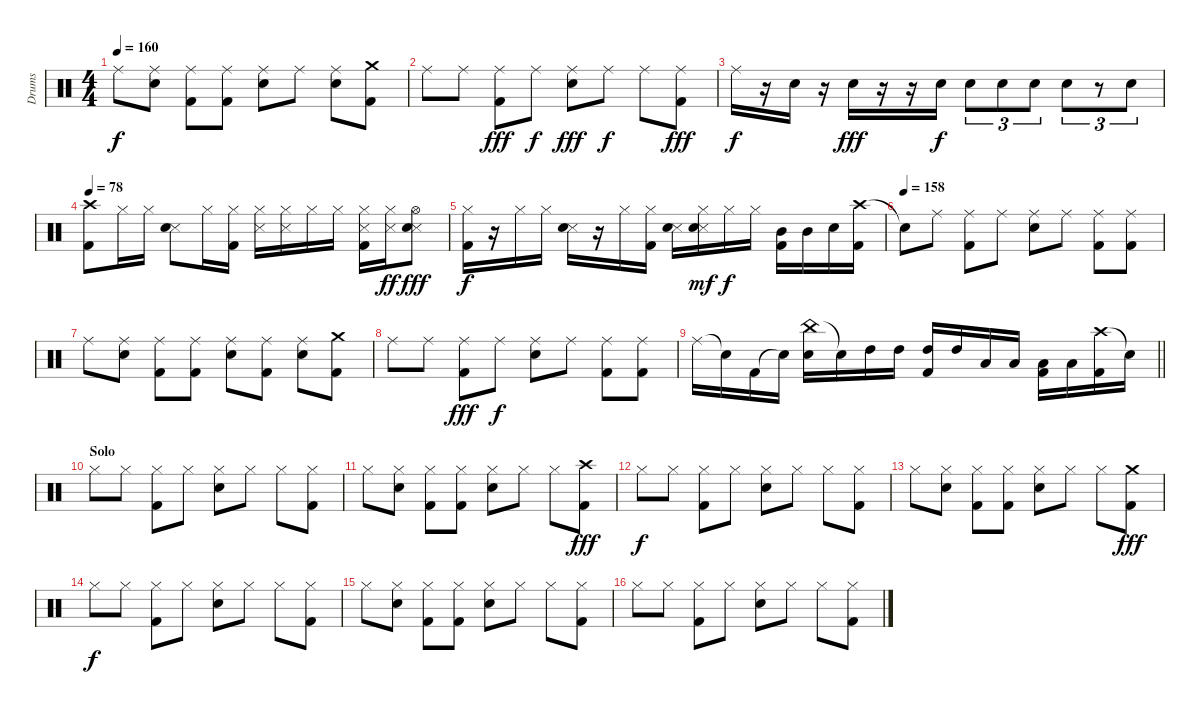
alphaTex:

\track ("Drums" "Drums") {instrument percussion}
\staff {score}
\articulation defaults
\ts (4 4)
\tempo 160
\clef neutral
\ks c "Ride (middle)".8{dy f}
("Ride (middle)" "Snare (hit) 2").8 ("Ride (middle)" "Kick (hit) 2").8 ("Ride (middle)" "Kick (hit) 2").8 ("Ride (middle)" "Snare (hit) 2").8 "Ride (middle)".8 ("Ride (middle)" "Snare (hit) 2").8 ("Crash medium (hit)" "Kick (hit) 2").8 |
"Ride (middle)".8 "Ride (middle)".8 ("Ride (middle)" "Kick (hit) 2").8{dy fff} "Ride (middle)".8{dy f} ("Ride (middle)" "Snare (hit) 2").8{dy fff} "Ride (middle)".8{dy f} "Ride (middle)".8 ("Ride (middle)" "Kick (hit) 2").8{dy fff} |
"Ride (middle)".16{dy f} r.16 "Snare (hit) 2".16 r.16 "Snare (hit) 2".16{dy fff} r.16 r.16 "Snare (hit) 2".16{dy f} "Snare (hit) 2".8{tu (3 2)} "Snare (hit) 2".8{tu (3 2)} "Snare (hit) 2".8{tu (3 2)} "Snare (hit) 2".8{tu (3 2)} r.8{tu (3 2)} "Snare (hit) 2".8{tu (3 2)} |
\tempo 78
("Crash high (hit)" "Kick (hit) 2").8 "Hi-Hat (closed)".16 "Hi-Hat (closed)".16 ("Snare (side stick) 3" "Electric Snare (hit)").8 "Hi-Hat (closed)".16 ("Hi-Hat (closed)" "Kick (hit) 2").16 ("Hi-Hat (closed)" "Snare (side stick) 3").16 ("Hi-Hat (closed)" "Snare (side stick) 3").16 "Hi-Hat (closed)".16 "Hi-Hat (closed)".16 ("Hi-Hat (closed)" "Snare (side stick) 3" "Kick (hit) 2").16 ("Hi-Hat (closed)" "Snare (side stick) 3").16{dy ff} ("Hi-Hat (open)" "Snare (side stick) 3" "Electric Snare (hit)").8{dy fff} |
("Hi-Hat (closed)" "Kick (hit) 2").16{dy f} r.16 "Hi-Hat (closed)".16 "Hi-Hat (closed)".16 ("Snare (side stick) 3" "Electric Snare (hit)").16 r.16 "Hi-Hat (closed)".16 ("Hi-Hat (closed)" "Kick (hit) 2").16 ("Snare (side stick) 3" "Electric Snare (hit)").16 ("Hi-Hat (closed)" "Snare (side stick) 3" "Electric Snare (hit)").16{dy mf} "Hi-Hat (closed)".16{dy f} "Hi-Hat (closed)".16 ("Mid Tom (hit)" "Kick (hit) 2").16 "Mid Tom (hit)".16 "Snare (hit) 2".16 ("Crash high (hit)" "Kick (hit) 2").16 |
\tempo (158)
"Snare (hit)"{t}.8 "Ride (middle)".8 ("Ride (middle)" "Kick (hit) 2").8 "Ride (middle)".8 ("Ride (middle)" "Snare (hit) 2").8 "Ride (middle)".8 ("Ride (middle)" "Kick (hit) 2").8 ("Ride (middle)" "Kick (hit) 2").8 |
"Ride (middle)".8 ("Ride (middle)" "Snare (hit) 2").8 ("Ride (middle)" "Kick (hit) 2").8 ("Ride (middle)" "Kick (hit) 2").8 ("Ride (middle)" "Snare (hit) 2").8 ("Ride (middle)" "Kick (hit) 2").8 ("Ride (middle)" "Snare (hit) 2").8 ("Crash medium (hit)" "Kick (hit) 2").8 |
"Ride (middle)".8 "Ride (middle)".8 ("Ride (middle)" "Kick (hit) 2").8{dy fff} "Ride (middle)".8{dy f} ("Ride (middle)" "Snare (hit) 2").8 "Ride (middle)".8 ("Ride (middle)" "Kick (hit) 2").8 ("Ride (middle)" "Kick (hit) 2").8 |
\barLineRight lightlight "Ride (middle)".16 "Snare (hit)"{t}.16 "Kick (hit) 2".16 "Snare (hit)"{t}.16
("China (hit)" "Snare (hit) 2").16 "Snare (hit)"{t}.16 "High Tom (hit)".16 "High Tom (hit)".16 ("High Tom (hit)" "Kick (hit) 2").16 "High Tom (hit)".16 "Low Tom (hit)".16 "Low Tom (hit)".16 ("Low Tom (hit)" "Kick (hit) 2").16 "Low Tom (hit)".16 ("Crash high (hit)" "Kick (hit) 2").16 "Snare (hit)"{t}.16 |
\section ("" "Solo")
"Hi-Hat (closed)".8 "Hi-Hat (closed)".8 ("Hi-Hat (closed)" "Kick (hit) 2").8 "Hi-Hat (closed)".8 ("Hi-Hat (closed)" "Snare (hit) 2").8 "Hi-Hat (closed)".8 "Hi-Hat (closed)".8 ("Hi-Hat (closed)" "Kick (hit) 2").8 |
"Hi-Hat (closed)".8 ("Hi-Hat (closed)" "Snare (hit) 2").8 ("Hi-Hat (closed)" "Kick (hit) 2").8 ("Hi-Hat (closed)" "Kick (hit) 2").8 ("Hi-Hat (closed)" "Snare (hit) 2").8 "Hi-Hat (closed)".8 "Hi-Hat (closed)".8 ("Crash high (hit)" "Kick (hit) 2").8{dy fff} |
"Hi-Hat (closed)".8{dy f} "Hi-Hat (closed)".8 ("Hi-Hat (closed)" "Kick (hit) 2").8 "Hi-Hat (closed)".8 ("Hi-Hat (closed)" "Snare (hit) 2").8 "Hi-Hat (closed)".8 "Hi-Hat (closed)".8 ("Hi-Hat (closed)" "Kick (hit) 2").8 |
"Hi-Hat (closed)".8 ("Hi-Hat (closed)" "Snare (hit) 2").8 ("Hi-Hat (closed)" "Kick (hit) 2").8 ("Hi-Hat (closed)" "Kick (hit) 2").8 ("Hi-Hat (closed)" "Snare (hit) 2").8 "Hi-Hat (closed)".8 "Hi-Hat (closed)".8 ("Crash medium (hit)" "Kick (hit) 2").8{dy fff} |
"Hi-Hat (closed)".8{dy f} "Hi-Hat (closed)".8 ("Hi-Hat (closed)" "Kick (hit) 2").8 "Hi-Hat (closed)".8 ("Hi-Hat (closed)" "Snare (hit) 2").8 "Hi-Hat (closed)".8 "Hi-Hat (closed)".8 ("Hi-Hat (closed)" "Kick (hit) 2").8 |
"Hi-Hat (closed)".8 ("Hi-Hat (closed)" "Snare (hit) 2").8 ("Hi-Hat (closed)" "Kick (hit) 2").8 ("Hi-Hat (closed)" "Kick (hit) 2").8 ("Hi-Hat (closed)" "Snare (hit) 2").8 "Hi-Hat (closed)".8 "Hi-Hat (closed)".8 ("Hi-Hat (closed)" "Kick (hit) 2").8 |
"Hi-Hat (closed)".8 "Hi-Hat (closed)".8 ("Hi-Hat (closed)" "Kick (hit) 2").8 "Hi-Hat (closed)".8 ("Hi-Hat (closed)" "Snare (hit) 2").8 "Hi-Hat (closed)".8 "Hi-Hat (closed)".8 ("Hi-Hat (closed)" "Kick (hit) 2").8
